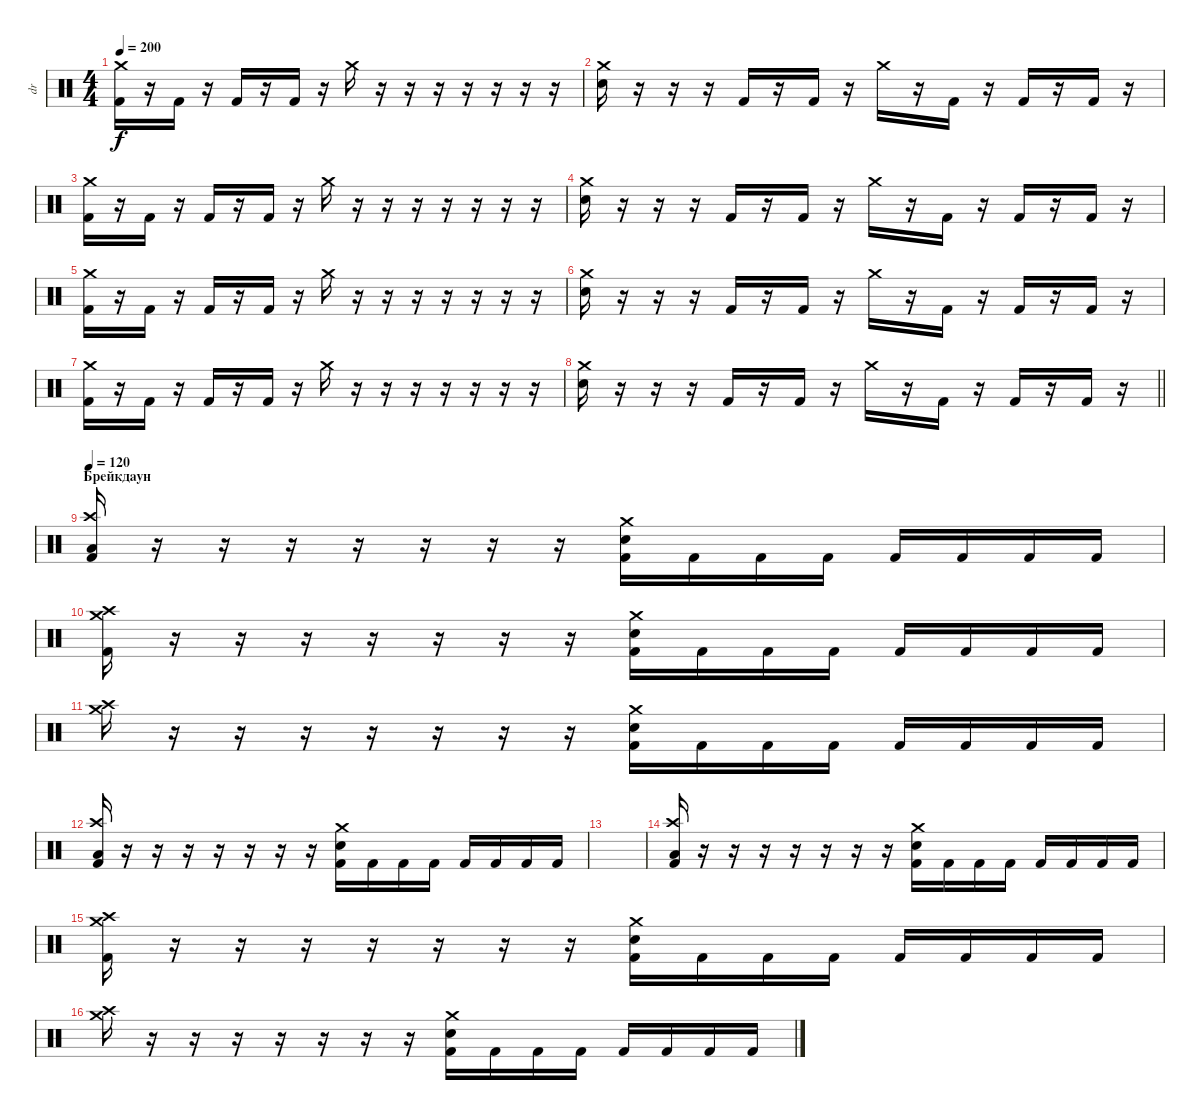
\track ("dr" "dr") {instrument percussion}
\staff {score}
\articulation defaults
\ts (4 4)
\tempo 200
\clef neutral
\ks c
("Crash medium (hit)" "Kick (hit) 2").16{dy f} r.16 "Kick (hit) 2".16 r.16 "Kick (hit) 2".16 r.16 "Kick (hit) 2".16 r.16 "Crash medium (hit)".16 r.16 r.16 r.16 r.16 r.16 r.16 r.16 |
("Crash medium (hit)" "Electric Snare (hit)").16 r.16 r.16 r.16 "Kick (hit) 2".16 r.16 "Kick (hit) 2".16 r.16 "Crash medium (hit)".16 r.16 "Kick (hit) 2".16 r.16 "Kick (hit) 2".16 r.16 "Kick (hit) 2".16 r.16 |
("Crash medium (hit)" "Kick (hit) 2").16 r.16 "Kick (hit) 2".16 r.16 "Kick (hit) 2".16 r.16 "Kick (hit) 2".16 r.16 "Crash medium (hit)".16 r.16 r.16 r.16 r.16 r.16 r.16 r.16 |
("Crash medium (hit)" "Electric Snare (hit)").16 r.16 r.16 r.16 "Kick (hit) 2".16 r.16 "Kick (hit) 2".16 r.16 "Crash medium (hit)".16 r.16 "Kick (hit) 2".16 r.16 "Kick (hit) 2".16 r.16 "Kick (hit) 2".16 r.16 |
("Crash medium (hit)" "Kick (hit) 2").16 r.16 "Kick (hit) 2".16 r.16 "Kick (hit) 2".16 r.16 "Kick (hit) 2".16 r.16 "Crash medium (hit)".16 r.16 r.16 r.16 r.16 r.16 r.16 r.16 |
("Crash medium (hit)" "Electric Snare (hit)").16 r.16 r.16 r.16 "Kick (hit) 2".16 r.16 "Kick (hit) 2".16 r.16 "Crash medium (hit)".16 r.16 "Kick (hit) 2".16 r.16 "Kick (hit) 2".16 r.16 "Kick (hit) 2".16 r.16 |
("Crash medium (hit)" "Kick (hit) 2").16 r.16 "Kick (hit) 2".16 r.16 "Kick (hit) 2".16 r.16 "Kick (hit) 2".16 r.16 "Crash medium (hit)".16 r.16 r.16 r.16 r.16 r.16 r.16 r.16 |
\barLineRight lightlight
("Crash medium (hit)" "Electric Snare (hit)").16 r.16 r.16 r.16 "Kick (hit) 2".16 r.16 "Kick (hit) 2".16 r.16 "Crash medium (hit)".16 r.16 "Kick (hit) 2".16 r.16 "Kick (hit) 2".16 r.16 "Kick (hit) 2".16 r.16 |
\section ("" "Брейкдаун")
\tempo 120
("Crash high (hit)" "Low Floor Tom (hit)" "Kick (hit) 2").16 r.16 r.16 r.16 r.16 r.16 r.16 r.16 ("Crash medium (hit)" "Electric Snare (hit)" "Kick (hit) 2").16{volume 15} "Kick (hit) 2".16 "Kick (hit) 2".16 "Kick (hit) 2".16 "Kick (hit) 2".16 "Kick (hit) 2".16 "Kick (hit) 2".16 "Kick (hit) 2".16 |
("Crash high (hit)" "Crash medium (hit)" "Kick (hit) 2").16 r.16{volume 0} r.16 r.16 r.16 r.16 r.16 r.16 ("Crash medium (hit)" "Electric Snare (hit)" "Kick (hit) 2").16{volume 15} "Kick (hit) 2".16 "Kick (hit) 2".16 "Kick (hit) 2".16 "Kick (hit) 2".16 "Kick (hit) 2".16 "Kick (hit) 2".16 "Kick (hit) 2".16 |
("Crash high (hit)" "Crash medium (hit)").16 r.16{volume 0} r.16 r.16 r.16 r.16 r.16 r.16 ("Crash medium (hit)" "Electric Snare (hit)" "Kick (hit) 2").16{volume 15} "Kick (hit) 2".16 "Kick (hit) 2".16 "Kick (hit) 2".16 "Kick (hit) 2".16 "Kick (hit) 2".16 "Kick (hit) 2".16 "Kick (hit) 2".16 |
("Crash high (hit)" "Low Floor Tom (hit)" "Kick (hit) 2").16 r.16 r.16 r.16 r.16 r.16 r.16 r.16 ("Crash medium (hit)" "Electric Snare (hit)" "Kick (hit) 2").16 "Kick (hit) 2".16 "Kick (hit) 2".16 "Kick (hit) 2".16 "Kick (hit) 2".16 "Kick (hit) 2".16 "Kick (hit) 2".16 "Kick (hit) 2".16 |
|
("Crash high (hit)" "Low Floor Tom (hit)" "Kick (hit) 2").16 r.16 r.16 r.16 r.16 r.16 r.16 r.16 ("Crash medium (hit)" "Electric Snare (hit)" "Kick (hit) 2").16 "Kick (hit) 2".16 "Kick (hit) 2".16 "Kick (hit) 2".16 "Kick (hit) 2".16 "Kick (hit) 2".16 "Kick (hit) 2".16 "Kick (hit) 2".16 |
("Crash high (hit)" "Crash medium (hit)" "Kick (hit) 2").16 r.16 r.16 r.16 r.16 r.16 r.16 r.16 ("Crash medium (hit)" "Electric Snare (hit)" "Kick (hit) 2").16 "Kick (hit) 2".16 "Kick (hit) 2".16 "Kick (hit) 2".16 "Kick (hit) 2".16 "Kick (hit) 2".16 "Kick (hit) 2".16 "Kick (hit) 2".16 |
("Crash high (hit)" "Crash medium (hit)").16 r.16 r.16 r.16 r.16 r.16 r.16 r.16 ("Crash medium (hit)" "Electric Snare (hit)" "Kick (hit) 2").16 "Kick (hit) 2".16 "Kick (hit) 2".16 "Kick (hit) 2".16 "Kick (hit) 2".16 "Kick (hit) 2".16 "Kick (hit) 2".16 "Kick (hit) 2".16
